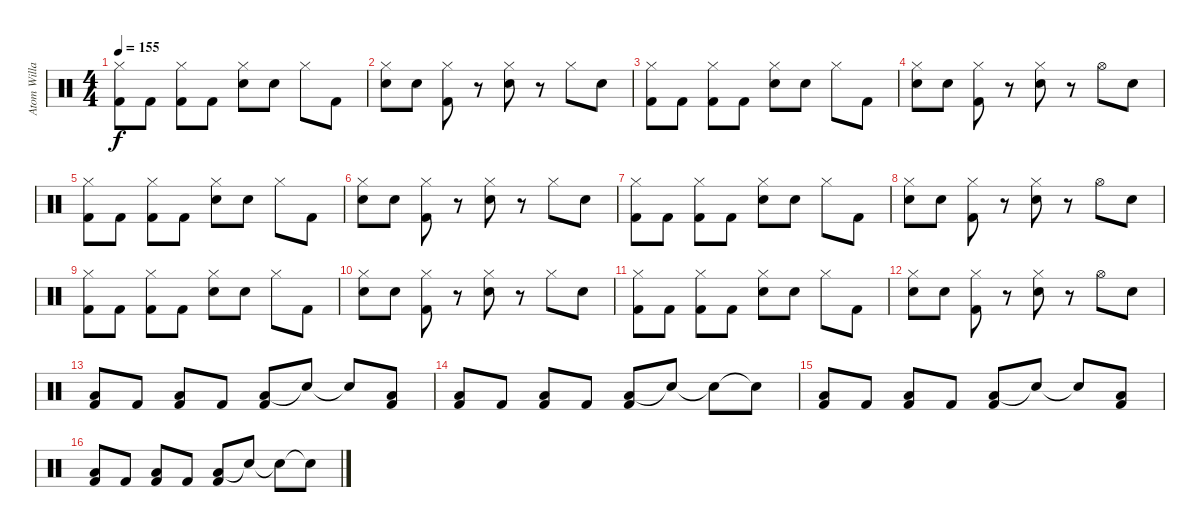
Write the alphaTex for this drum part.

\track ("Atom Willard Drums" "Atom Willa") {instrument percussion}
\staff {score}
\articulation defaults
\ts (4 4)
\tempo 155
\clef neutral
\ks c
("Kick (hit) 2" "Hi-Hat (closed)").8{dy f} "Kick (hit) 2".8 ("Kick (hit) 2" "Hi-Hat (closed)").8 "Kick (hit) 2".8 ("Electric Snare (hit)" "Hi-Hat (closed)").8 "Snare (hit)".8 "Hi-Hat (closed)".8 "Kick (hit) 2".8 |
("Snare (hit)" "Hi-Hat (closed)").8 "Electric Snare (hit)".8 ("Kick (hit) 2" "Hi-Hat (closed)").8 r.8 ("Electric Snare (hit)" "Hi-Hat (closed)").8 r.8 "Hi-Hat (closed)".8 "Snare (hit)".8 |
("Kick (hit) 2" "Hi-Hat (closed)").8 "Kick (hit) 2".8 ("Kick (hit) 2" "Hi-Hat (closed)").8 "Kick (hit) 2".8 ("Electric Snare (hit)" "Hi-Hat (closed)").8 "Snare (hit)".8 "Hi-Hat (closed)".8 "Kick (hit) 2".8 |
("Snare (hit)" "Hi-Hat (closed)").8 "Electric Snare (hit)".8 ("Kick (hit) 2" "Hi-Hat (closed)").8 r.8 ("Electric Snare (hit)" "Hi-Hat (closed)").8 r.8 "Hi-Hat (open)".8 "Snare (hit)".8 |
("Kick (hit) 2" "Hi-Hat (closed)").8 "Kick (hit) 2".8 ("Kick (hit) 2" "Hi-Hat (closed)").8 "Kick (hit) 2".8 ("Electric Snare (hit)" "Hi-Hat (closed)").8 "Snare (hit)".8 "Hi-Hat (closed)".8 "Kick (hit) 2".8 |
("Snare (hit)" "Hi-Hat (closed)").8 "Electric Snare (hit)".8 ("Kick (hit) 2" "Hi-Hat (closed)").8 r.8 ("Electric Snare (hit)" "Hi-Hat (closed)").8 r.8 "Hi-Hat (closed)".8 "Snare (hit)".8 |
("Kick (hit) 2" "Hi-Hat (closed)").8 "Kick (hit) 2".8 ("Kick (hit) 2" "Hi-Hat (closed)").8 "Kick (hit) 2".8 ("Electric Snare (hit)" "Hi-Hat (closed)").8 "Snare (hit)".8 "Hi-Hat (closed)".8 "Kick (hit) 2".8 |
("Snare (hit)" "Hi-Hat (closed)").8 "Electric Snare (hit)".8 ("Kick (hit) 2" "Hi-Hat (closed)").8 r.8 ("Electric Snare (hit)" "Hi-Hat (closed)").8 r.8 "Hi-Hat (open)".8 "Snare (hit)".8 |
("Kick (hit) 2" "Hi-Hat (closed)").8 "Kick (hit) 2".8 ("Kick (hit) 2" "Hi-Hat (closed)").8 "Kick (hit) 2".8 ("Electric Snare (hit)" "Hi-Hat (closed)").8 "Snare (hit)".8 "Hi-Hat (closed)".8 "Kick (hit) 2".8 |
("Snare (hit)" "Hi-Hat (closed)").8 "Electric Snare (hit)".8 ("Kick (hit) 2" "Hi-Hat (closed)").8 r.8 ("Electric Snare (hit)" "Hi-Hat (closed)").8 r.8 "Hi-Hat (closed)".8 "Snare (hit)".8 |
("Kick (hit) 2" "Hi-Hat (closed)").8 "Kick (hit) 2".8 ("Kick (hit) 2" "Hi-Hat (closed)").8 "Kick (hit) 2".8 ("Electric Snare (hit)" "Hi-Hat (closed)").8 "Snare (hit)".8 "Hi-Hat (closed)".8 "Kick (hit) 2".8 |
("Snare (hit)" "Hi-Hat (closed)").8 "Electric Snare (hit)".8 ("Kick (hit) 2" "Hi-Hat (closed)").8 r.8 ("Electric Snare (hit)" "Hi-Hat (closed)").8 r.8 "Hi-Hat (open)".8 "Snare (hit)".8 |
("Low Tom (hit)" "Kick (hit) 2").8 "Kick (hit) 2".8 ("Low Tom (hit)" "Kick (hit) 2").8 "Kick (hit) 2".8 ("Low Tom (hit)" "Kick (hit) 2").8 "Snare (hit)"{t}.8 "Snare (hit)"{t}.8 ("Low Tom (hit)" "Kick (hit) 2").8 |
("Low Tom (hit)" "Kick (hit) 2").8 "Kick (hit) 2".8 ("Low Tom (hit)" "Kick (hit) 2").8 "Kick (hit) 2".8 ("Low Tom (hit)" "Kick (hit) 2").8 "Snare (hit)"{t}.8 "Snare (hit)"{t}.8 "Snare (hit)"{t}.8 |
("Low Tom (hit)" "Kick (hit) 2").8 "Kick (hit) 2".8 ("Low Tom (hit)" "Kick (hit) 2").8 "Kick (hit) 2".8 ("Low Tom (hit)" "Kick (hit) 2").8 "Snare (hit)"{t}.8 "Snare (hit)"{t}.8 ("Low Tom (hit)" "Kick (hit) 2").8 |
("Low Tom (hit)" "Kick (hit) 2").8 "Kick (hit) 2".8 ("Low Tom (hit)" "Kick (hit) 2").8 "Kick (hit) 2".8 ("Low Tom (hit)" "Kick (hit) 2").8 "Snare (hit)"{t}.8 "Snare (hit)"{t}.8 "Snare (hit)"{t}.8
